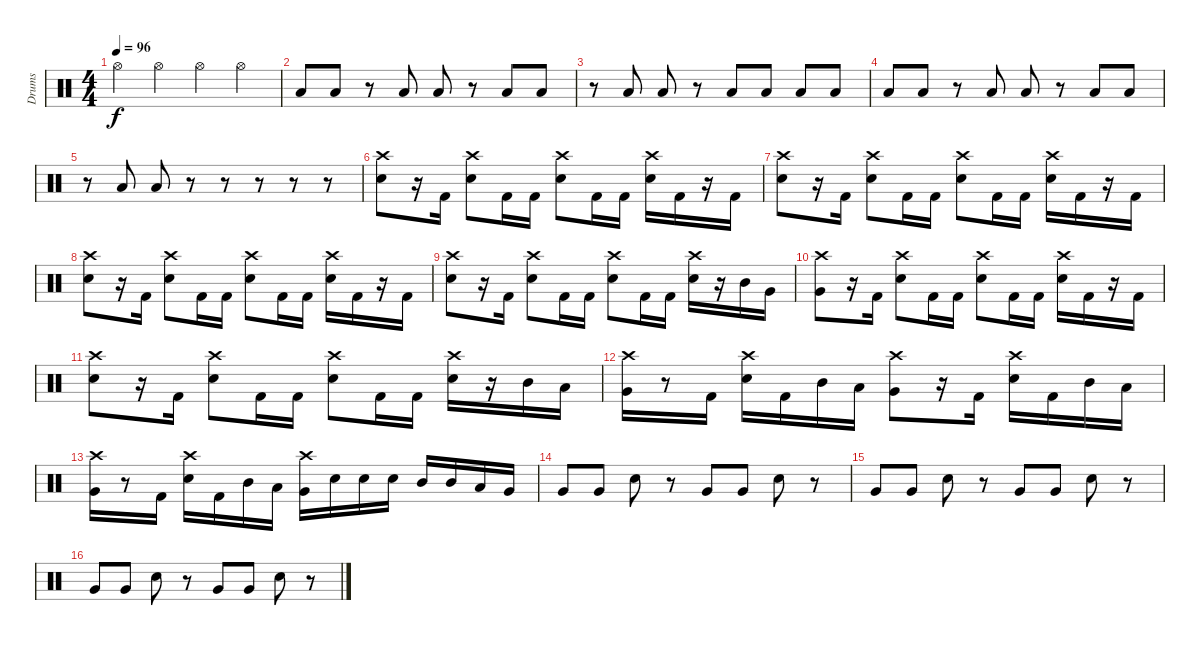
\track ("Drums" "Drums") {instrument percussion}
\staff {score}
\articulation defaults
\ts (4 4)
\tempo 96
\clef neutral
\ks c "Hi-Hat (open)".4{dy f} "Hi-Hat (open)".4 "Hi-Hat (open)".4 "Hi-Hat (open)".4
|
"Low Floor Tom (hit)".8 "Low Floor Tom (hit)".8 r.8 "Low Floor Tom (hit)".8 "Low Floor Tom (hit)".8 r.8 "Low Floor Tom (hit)".8 "Low Floor Tom (hit)".8 |
r.8 "Low Floor Tom (hit)".8 "Low Floor Tom (hit)".8 r.8 "Low Floor Tom (hit)".8 "Low Floor Tom (hit)".8 "Low Floor Tom (hit)".8 "Low Floor Tom (hit)".8 |
"Low Floor Tom (hit)".8 "Low Floor Tom (hit)".8 r.8 "Low Floor Tom (hit)".8 "Low Floor Tom (hit)".8 r.8 "Low Floor Tom (hit)".8 "Low Floor Tom (hit)".8 |
r.8 "Low Floor Tom (hit)".8 "Low Floor Tom (hit)".8 r.8 r.8 r.8 r.8 r.8 |
("Crash high (hit)" "Electric Snare (hit)").8 r.16 "Kick (hit) 2".16 ("Crash high (hit)" "Electric Snare (hit)").8 "Kick (hit) 2".16 "Kick (hit) 2".16 ("Crash high (hit)" "Electric Snare (hit)").8 "Kick (hit) 2".16 "Kick (hit) 2".16 ("Crash high (hit)" "Electric Snare (hit)").16 "Kick (hit) 2".16 r.16 "Kick (hit) 2".16 |
("Crash high (hit)" "Electric Snare (hit)").8 r.16 "Kick (hit) 2".16 ("Crash high (hit)" "Electric Snare (hit)").8 "Kick (hit) 2".16 "Kick (hit) 2".16 ("Crash high (hit)" "Electric Snare (hit)").8 "Kick (hit) 2".16 "Kick (hit) 2".16 ("Crash high (hit)" "Electric Snare (hit)").16 "Kick (hit) 2".16 r.16 "Kick (hit) 2".16 |
("Crash high (hit)" "Electric Snare (hit)").8 r.16 "Kick (hit) 2".16 ("Crash high (hit)" "Electric Snare (hit)").8 "Kick (hit) 2".16 "Kick (hit) 2".16 ("Crash high (hit)" "Electric Snare (hit)").8 "Kick (hit) 2".16 "Kick (hit) 2".16 ("Crash high (hit)" "Electric Snare (hit)").16 "Kick (hit) 2".16 r.16 "Kick (hit) 2".16 |
("Crash high (hit)" "Electric Snare (hit)").8 r.16 "Kick (hit) 2".16 ("Crash high (hit)" "Electric Snare (hit)").8 "Kick (hit) 2".16 "Kick (hit) 2".16 ("Crash high (hit)" "Electric Snare (hit)").8 "Kick (hit) 2".16 "Kick (hit) 2".16 ("Crash high (hit)" "Electric Snare (hit)").16 r.16 "Mid Tom (hit)".16 "Very Low Tom (hit)".16 |
("Crash high (hit)" "Very Low Tom (hit)").8 r.16 "Kick (hit) 2".16 ("Crash high (hit)" "Electric Snare (hit)").8 "Kick (hit) 2".16 "Kick (hit) 2".16 ("Crash high (hit)" "Electric Snare (hit)").8 "Kick (hit) 2".16 "Kick (hit) 2".16 ("Crash high (hit)" "Electric Snare (hit)").16 "Kick (hit) 2".16 r.16 "Kick (hit) 2".16 |
("Crash high (hit)" "Electric Snare (hit)").8 r.16 "Kick (hit) 2".16 ("Crash high (hit)" "Electric Snare (hit)").8 "Kick (hit) 2".16 "Kick (hit) 2".16 ("Crash high (hit)" "Electric Snare (hit)").8 "Kick (hit) 2".16 "Kick (hit) 2".16 ("Crash high (hit)" "Electric Snare (hit)").16 r.16 "Mid Tom (hit)".16 "Low Tom (hit)".16 |
("Crash high (hit)" "Very Low Tom (hit)").16 r.8 "Kick (hit) 2".16 ("Crash high (hit)" "Electric Snare (hit)").16 "Kick (hit) 2".16 "Mid Tom (hit)".16 "Low Tom (hit)".16 ("Crash high (hit)" "Very Low Tom (hit)").8 r.16 "Kick (hit) 2".16 ("Crash high (hit)" "Electric Snare (hit)").16 "Kick (hit) 2".16 "Mid Tom (hit)".16 "Low Tom (hit)".16 |
("Crash high (hit)" "Very Low Tom (hit)").16 r.8 "Kick (hit) 2".16 ("Crash high (hit)" "Electric Snare (hit)").16 "Kick (hit) 2".16 "Mid Tom (hit)".16 "Low Tom (hit)".16 ("Crash high (hit)" "Very Low Tom (hit)").16 "Electric Snare (hit)".16 "Electric Snare (hit)".16 "Electric Snare (hit)".16 "Mid Tom (hit)".16 "Mid Tom (hit)".16 "Low Tom (hit)".16 "Very Low Tom (hit)".16 |
"Very Low Tom (hit)".8 "Very Low Tom (hit)".8 "Electric Snare (hit)".8 r.8 "Very Low Tom (hit)".8 "Very Low Tom (hit)".8 "Electric Snare (hit)".8 r.8 |
"Very Low Tom (hit)".8 "Very Low Tom (hit)".8 "Electric Snare (hit)".8 r.8 "Very Low Tom (hit)".8 "Very Low Tom (hit)".8 "Electric Snare (hit)".8 r.8 |
"Very Low Tom (hit)".8 "Very Low Tom (hit)".8 "Electric Snare (hit)".8 r.8 "Very Low Tom (hit)".8 "Very Low Tom (hit)".8 "Electric Snare (hit)".8 r.8
